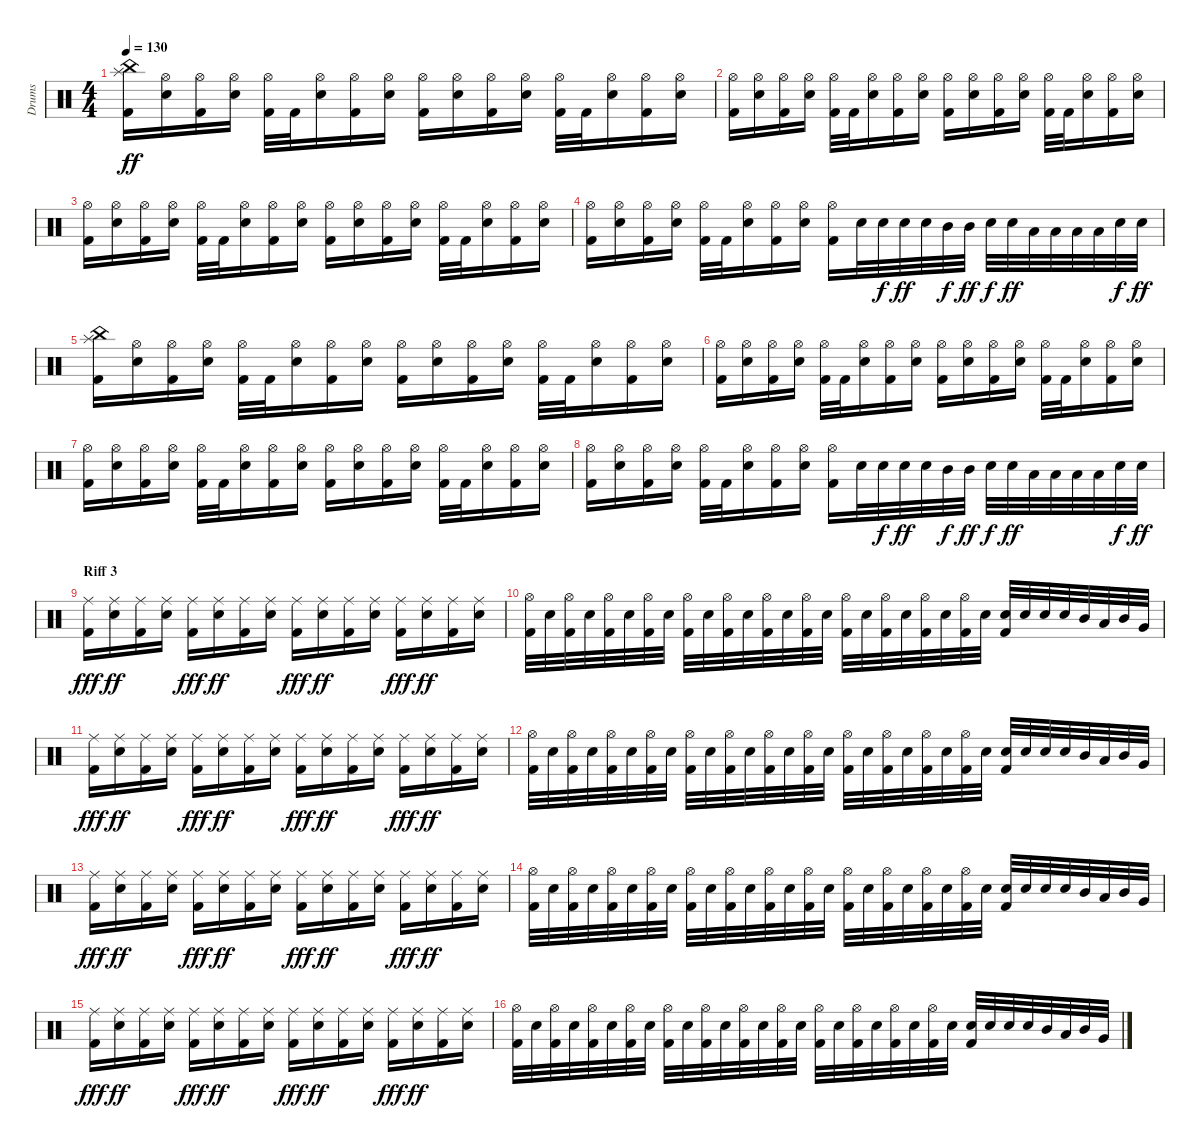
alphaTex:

\track ("Drums" "Drums") {instrument percussion}
\staff {score}
\articulation defaults
\ts (4 4)
\tempo 130
\clef neutral
\ks c
("Kick (hit) 2" "Splash (hit)" "China (hit)").16{dy ff} ("Snare (hit) 2" "Hi-Hat (open)").16 ("Kick (hit) 2" "Hi-Hat (open)").16 ("Snare (hit) 2" "Hi-Hat (open)").16 ("Kick (hit) 2" "Hi-Hat (open)").32 "Kick (hit) 2".32 ("Electric Snare (hit)" "Hi-Hat (open)").16 ("Kick (hit) 2" "Hi-Hat (open)").16 ("Snare (hit) 2" "Hi-Hat (open)").16 ("Kick (hit) 2" "Hi-Hat (open)").16 ("Snare (hit) 2" "Hi-Hat (open)").16 ("Kick (hit) 2" "Hi-Hat (open)").16 ("Snare (hit) 2" "Hi-Hat (open)").16 ("Kick (hit) 2" "Hi-Hat (open)").32 "Kick (hit) 2".32 ("Electric Snare (hit)" "Hi-Hat (open)").16 ("Kick (hit) 2" "Hi-Hat (open)").16 ("Snare (hit) 2" "Hi-Hat (open)").16 |
("Kick (hit) 2" "Hi-Hat (open)").16 ("Snare (hit) 2" "Hi-Hat (open)").16 ("Kick (hit) 2" "Hi-Hat (open)").16 ("Snare (hit) 2" "Hi-Hat (open)").16 ("Kick (hit) 2" "Hi-Hat (open)").32 "Kick (hit) 2".32 ("Snare (hit) 2" "Hi-Hat (open)").16 ("Kick (hit) 2" "Hi-Hat (open)").16 ("Snare (hit) 2" "Hi-Hat (open)").16 ("Kick (hit) 2" "Hi-Hat (open)").16 ("Snare (hit) 2" "Hi-Hat (open)").16 ("Kick (hit) 2" "Hi-Hat (open)").16 ("Snare (hit) 2" "Hi-Hat (open)").16 ("Kick (hit) 2" "Hi-Hat (open)").32 "Kick (hit) 2".32 ("Snare (hit) 2" "Hi-Hat (open)").16 ("Kick (hit) 2" "Hi-Hat (open)").16 ("Snare (hit) 2" "Hi-Hat (open)").16 |
("Kick (hit) 2" "Hi-Hat (open)").16 ("Snare (hit) 2" "Hi-Hat (open)").16 ("Kick (hit) 2" "Hi-Hat (open)").16 ("Snare (hit) 2" "Hi-Hat (open)").16 ("Kick (hit) 2" "Hi-Hat (open)").32 "Kick (hit) 2".32 ("Snare (hit) 2" "Hi-Hat (open)").16 ("Kick (hit) 2" "Hi-Hat (open)").16 ("Snare (hit) 2" "Hi-Hat (open)").16 ("Kick (hit) 2" "Hi-Hat (open)").16 ("Snare (hit) 2" "Hi-Hat (open)").16 ("Kick (hit) 2" "Hi-Hat (open)").16 ("Snare (hit) 2" "Hi-Hat (open)").16 ("Kick (hit) 2" "Hi-Hat (open)").32 "Kick (hit) 2".32 ("Snare (hit) 2" "Hi-Hat (open)").16 ("Kick (hit) 2" "Hi-Hat (open)").16 ("Snare (hit) 2" "Hi-Hat (open)").16 |
("Kick (hit) 2" "Hi-Hat (open)").16 ("Snare (hit) 2" "Hi-Hat (open)").16 ("Kick (hit) 2" "Hi-Hat (open)").16 ("Snare (hit) 2" "Hi-Hat (open)").16 ("Kick (hit) 2" "Hi-Hat (open)").32 "Kick (hit) 2".32 ("Electric Snare (hit)" "Hi-Hat (open)").16 ("Kick (hit) 2" "Hi-Hat (open)").16 ("Snare (hit) 2" "Hi-Hat (open)").16 ("Kick (hit) 2" "Hi-Hat (open)").16 "Snare (hit) 2".32 "Snare (hit) 2".32{dy f} "Snare (hit) 2".32{dy ff} "Snare (hit) 2".32 "Mid Tom (hit)".32{dy f} "Mid Tom (hit)".32{dy ff} "Snare (hit) 2".32{dy f} "Snare (hit) 2".32{dy ff} "Low Tom (hit)".32 "Low Tom (hit)".32 "Low Tom (hit)".32 "Low Tom (hit)".32 "Snare (hit) 2".32{dy f} "Snare (hit) 2".32{dy ff} |
("Kick (hit) 2" "Splash (hit)" "China (hit)").16 ("Snare (hit) 2" "Hi-Hat (open)").16 ("Kick (hit) 2" "Hi-Hat (open)").16 ("Snare (hit) 2" "Hi-Hat (open)").16 ("Kick (hit) 2" "Hi-Hat (open)").32 "Kick (hit) 2".32 ("Electric Snare (hit)" "Hi-Hat (open)").16 ("Kick (hit) 2" "Hi-Hat (open)").16 ("Snare (hit) 2" "Hi-Hat (open)").16 ("Kick (hit) 2" "Hi-Hat (open)").16 ("Snare (hit) 2" "Hi-Hat (open)").16 ("Kick (hit) 2" "Hi-Hat (open)").16 ("Snare (hit) 2" "Hi-Hat (open)").16 ("Kick (hit) 2" "Hi-Hat (open)").32 "Kick (hit) 2".32 ("Electric Snare (hit)" "Hi-Hat (open)").16 ("Kick (hit) 2" "Hi-Hat (open)").16 ("Snare (hit) 2" "Hi-Hat (open)").16 |
("Kick (hit) 2" "Hi-Hat (open)").16 ("Snare (hit) 2" "Hi-Hat (open)").16 ("Kick (hit) 2" "Hi-Hat (open)").16 ("Snare (hit) 2" "Hi-Hat (open)").16 ("Kick (hit) 2" "Hi-Hat (open)").32 "Kick (hit) 2".32 ("Snare (hit) 2" "Hi-Hat (open)").16 ("Kick (hit) 2" "Hi-Hat (open)").16 ("Snare (hit) 2" "Hi-Hat (open)").16 ("Kick (hit) 2" "Hi-Hat (open)").16 ("Snare (hit) 2" "Hi-Hat (open)").16 ("Kick (hit) 2" "Hi-Hat (open)").16 ("Snare (hit) 2" "Hi-Hat (open)").16 ("Kick (hit) 2" "Hi-Hat (open)").32 "Kick (hit) 2".32 ("Snare (hit) 2" "Hi-Hat (open)").16 ("Kick (hit) 2" "Hi-Hat (open)").16 ("Snare (hit) 2" "Hi-Hat (open)").16 |
("Kick (hit) 2" "Hi-Hat (open)").16 ("Snare (hit) 2" "Hi-Hat (open)").16 ("Kick (hit) 2" "Hi-Hat (open)").16 ("Snare (hit) 2" "Hi-Hat (open)").16 ("Kick (hit) 2" "Hi-Hat (open)").32 "Kick (hit) 2".32 ("Snare (hit) 2" "Hi-Hat (open)").16 ("Kick (hit) 2" "Hi-Hat (open)").16 ("Snare (hit) 2" "Hi-Hat (open)").16 ("Kick (hit) 2" "Hi-Hat (open)").16 ("Snare (hit) 2" "Hi-Hat (open)").16 ("Kick (hit) 2" "Hi-Hat (open)").16 ("Snare (hit) 2" "Hi-Hat (open)").16 ("Kick (hit) 2" "Hi-Hat (open)").32 "Kick (hit) 2".32 ("Snare (hit) 2" "Hi-Hat (open)").16 ("Kick (hit) 2" "Hi-Hat (open)").16 ("Snare (hit) 2" "Hi-Hat (open)").16 |
("Kick (hit) 2" "Hi-Hat (open)").16 ("Snare (hit) 2" "Hi-Hat (open)").16 ("Kick (hit) 2" "Hi-Hat (open)").16 ("Snare (hit) 2" "Hi-Hat (open)").16 ("Kick (hit) 2" "Hi-Hat (open)").32 "Kick (hit) 2".32 ("Electric Snare (hit)" "Hi-Hat (open)").16 ("Kick (hit) 2" "Hi-Hat (open)").16 ("Snare (hit) 2" "Hi-Hat (open)").16 ("Kick (hit) 2" "Hi-Hat (open)").16 "Snare (hit) 2".32 "Snare (hit) 2".32{dy f} "Snare (hit) 2".32{dy ff} "Snare (hit) 2".32 "Mid Tom (hit)".32{dy f} "Mid Tom (hit)".32{dy ff} "Snare (hit) 2".32{dy f} "Snare (hit) 2".32{dy ff} "Low Tom (hit)".32 "Low Tom (hit)".32 "Low Tom (hit)".32 "Low Tom (hit)".32 "Snare (hit) 2".32{dy f} "Snare (hit) 2".32{dy ff} |
\section ("" "Riff 3")
("Kick (hit) 2" "Ride (middle)").16{dy fff} ("Snare (hit) 2" "Ride (middle)").16{dy ff} ("Kick (hit) 2" "Ride (middle)").16 ("Snare (hit) 2" "Ride (middle)").16 ("Kick (hit) 2" "Ride (middle)").16{dy fff} ("Snare (hit) 2" "Ride (middle)").16{dy ff} ("Kick (hit) 2" "Ride (middle)").16 ("Snare (hit) 2" "Ride (middle)").16 ("Kick (hit) 2" "Ride (middle)").16{dy fff} ("Snare (hit) 2" "Ride (middle)").16{dy ff} ("Kick (hit) 2" "Ride (middle)").16 ("Snare (hit) 2" "Ride (middle)").16 ("Kick (hit) 2" "Ride (middle)").16{dy fff} ("Snare (hit) 2" "Ride (middle)").16{dy ff} ("Kick (hit) 2" "Ride (middle)").16 ("Snare (hit) 2" "Ride (middle)").16 |
("Kick (hit) 2" "Hi-Hat (open)").32 "Snare (hit) 2".32 ("Kick (hit) 2" "Hi-Hat (open)").32 "Snare (hit) 2".32 ("Kick (hit) 2" "Hi-Hat (open)").32 "Snare (hit) 2".32 ("Kick (hit) 2" "Hi-Hat (open)").32 "Snare (hit) 2".32 ("Kick (hit) 2" "Hi-Hat (open)").32 "Snare (hit) 2".32 ("Kick (hit) 2" "Hi-Hat (open)").32 "Snare (hit) 2".32 ("Kick (hit) 2" "Hi-Hat (open)").32 "Snare (hit) 2".32 ("Kick (hit) 2" "Hi-Hat (open)").32 "Snare (hit) 2".32 ("Kick (hit) 2" "Hi-Hat (open)").32 "Snare (hit) 2".32 ("Kick (hit) 2" "Hi-Hat (open)").32 "Snare (hit) 2".32 ("Kick (hit) 2" "Hi-Hat (open)").32 "Snare (hit) 2".32 ("Kick (hit) 2" "Hi-Hat (open)").32 "Snare (hit) 2".32 ("Kick (hit) 2" "Snare (hit) 2").32 "Snare (hit) 2".32 "Snare (hit) 2".32 "Snare (hit) 2".32 "Mid Tom (hit)".32 "Low Tom (hit)".32 "Mid Tom (hit)".32 "Very Low Tom (hit)".32 |
("Kick (hit) 2" "Ride (middle)").16{dy fff} ("Snare (hit) 2" "Ride (middle)").16{dy ff} ("Kick (hit) 2" "Ride (middle)").16 ("Snare (hit) 2" "Ride (middle)").16 ("Kick (hit) 2" "Ride (middle)").16{dy fff} ("Snare (hit) 2" "Ride (middle)").16{dy ff} ("Kick (hit) 2" "Ride (middle)").16 ("Snare (hit) 2" "Ride (middle)").16 ("Kick (hit) 2" "Ride (middle)").16{dy fff} ("Snare (hit) 2" "Ride (middle)").16{dy ff} ("Kick (hit) 2" "Ride (middle)").16 ("Snare (hit) 2" "Ride (middle)").16 ("Kick (hit) 2" "Ride (middle)").16{dy fff} ("Snare (hit) 2" "Ride (middle)").16{dy ff} ("Kick (hit) 2" "Ride (middle)").16 ("Snare (hit) 2" "Ride (middle)").16 |
("Kick (hit) 2" "Hi-Hat (open)").32 "Snare (hit) 2".32 ("Kick (hit) 2" "Hi-Hat (open)").32 "Snare (hit) 2".32 ("Kick (hit) 2" "Hi-Hat (open)").32 "Snare (hit) 2".32 ("Kick (hit) 2" "Hi-Hat (open)").32 "Snare (hit) 2".32 ("Kick (hit) 2" "Hi-Hat (open)").32 "Snare (hit) 2".32 ("Kick (hit) 2" "Hi-Hat (open)").32 "Snare (hit) 2".32 ("Kick (hit) 2" "Hi-Hat (open)").32 "Snare (hit) 2".32 ("Kick (hit) 2" "Hi-Hat (open)").32 "Snare (hit) 2".32 ("Kick (hit) 2" "Hi-Hat (open)").32 "Snare (hit) 2".32 ("Kick (hit) 2" "Hi-Hat (open)").32 "Snare (hit) 2".32 ("Kick (hit) 2" "Hi-Hat (open)").32 "Snare (hit) 2".32 ("Kick (hit) 2" "Hi-Hat (open)").32 "Snare (hit) 2".32 ("Kick (hit) 2" "Snare (hit) 2").32 "Snare (hit) 2".32 "Snare (hit) 2".32 "Snare (hit) 2".32 "Mid Tom (hit)".32 "Low Tom (hit)".32 "Mid Tom (hit)".32 "Very Low Tom (hit)".32 |
("Kick (hit) 2" "Ride (middle)").16{dy fff} ("Snare (hit) 2" "Ride (middle)").16{dy ff} ("Kick (hit) 2" "Ride (middle)").16 ("Snare (hit) 2" "Ride (middle)").16 ("Kick (hit) 2" "Ride (middle)").16{dy fff} ("Snare (hit) 2" "Ride (middle)").16{dy ff} ("Kick (hit) 2" "Ride (middle)").16 ("Snare (hit) 2" "Ride (middle)").16 ("Kick (hit) 2" "Ride (middle)").16{dy fff} ("Snare (hit) 2" "Ride (middle)").16{dy ff} ("Kick (hit) 2" "Ride (middle)").16 ("Snare (hit) 2" "Ride (middle)").16 ("Kick (hit) 2" "Ride (middle)").16{dy fff} ("Snare (hit) 2" "Ride (middle)").16{dy ff} ("Kick (hit) 2" "Ride (middle)").16 ("Snare (hit) 2" "Ride (middle)").16 |
("Kick (hit) 2" "Hi-Hat (open)").32 "Snare (hit) 2".32 ("Kick (hit) 2" "Hi-Hat (open)").32 "Snare (hit) 2".32 ("Kick (hit) 2" "Hi-Hat (open)").32 "Snare (hit) 2".32 ("Kick (hit) 2" "Hi-Hat (open)").32 "Snare (hit) 2".32 ("Kick (hit) 2" "Hi-Hat (open)").32 "Snare (hit) 2".32 ("Kick (hit) 2" "Hi-Hat (open)").32 "Snare (hit) 2".32 ("Kick (hit) 2" "Hi-Hat (open)").32 "Snare (hit) 2".32 ("Kick (hit) 2" "Hi-Hat (open)").32 "Snare (hit) 2".32 ("Kick (hit) 2" "Hi-Hat (open)").32 "Snare (hit) 2".32 ("Kick (hit) 2" "Hi-Hat (open)").32 "Snare (hit) 2".32 ("Kick (hit) 2" "Hi-Hat (open)").32 "Snare (hit) 2".32 ("Kick (hit) 2" "Hi-Hat (open)").32 "Snare (hit) 2".32 ("Kick (hit) 2" "Snare (hit) 2").32 "Snare (hit) 2".32 "Snare (hit) 2".32 "Snare (hit) 2".32 "Mid Tom (hit)".32 "Low Tom (hit)".32 "Mid Tom (hit)".32 "Very Low Tom (hit)".32 |
("Kick (hit) 2" "Ride (middle)").16{dy fff} ("Snare (hit) 2" "Ride (middle)").16{dy ff} ("Kick (hit) 2" "Ride (middle)").16 ("Snare (hit) 2" "Ride (middle)").16 ("Kick (hit) 2" "Ride (middle)").16{dy fff} ("Snare (hit) 2" "Ride (middle)").16{dy ff} ("Kick (hit) 2" "Ride (middle)").16 ("Snare (hit) 2" "Ride (middle)").16 ("Kick (hit) 2" "Ride (middle)").16{dy fff} ("Snare (hit) 2" "Ride (middle)").16{dy ff} ("Kick (hit) 2" "Ride (middle)").16 ("Snare (hit) 2" "Ride (middle)").16 ("Kick (hit) 2" "Ride (middle)").16{dy fff} ("Snare (hit) 2" "Ride (middle)").16{dy ff} ("Kick (hit) 2" "Ride (middle)").16 ("Snare (hit) 2" "Ride (middle)").16 |
("Kick (hit) 2" "Hi-Hat (open)").32 "Snare (hit) 2".32 ("Kick (hit) 2" "Hi-Hat (open)").32 "Snare (hit) 2".32 ("Kick (hit) 2" "Hi-Hat (open)").32 "Snare (hit) 2".32 ("Kick (hit) 2" "Hi-Hat (open)").32 "Snare (hit) 2".32 ("Kick (hit) 2" "Hi-Hat (open)").32 "Snare (hit) 2".32 ("Kick (hit) 2" "Hi-Hat (open)").32 "Snare (hit) 2".32 ("Kick (hit) 2" "Hi-Hat (open)").32 "Snare (hit) 2".32 ("Kick (hit) 2" "Hi-Hat (open)").32 "Snare (hit) 2".32 ("Kick (hit) 2" "Hi-Hat (open)").32 "Snare (hit) 2".32 ("Kick (hit) 2" "Hi-Hat (open)").32 "Snare (hit) 2".32 ("Kick (hit) 2" "Hi-Hat (open)").32 "Snare (hit) 2".32 ("Kick (hit) 2" "Hi-Hat (open)").32 "Snare (hit) 2".32 ("Kick (hit) 2" "Snare (hit) 2").32 "Snare (hit) 2".32 "Snare (hit) 2".32 "Snare (hit) 2".32 "Mid Tom (hit)".32 "Low Tom (hit)".32 "Mid Tom (hit)".32 "Very Low Tom (hit)".32
